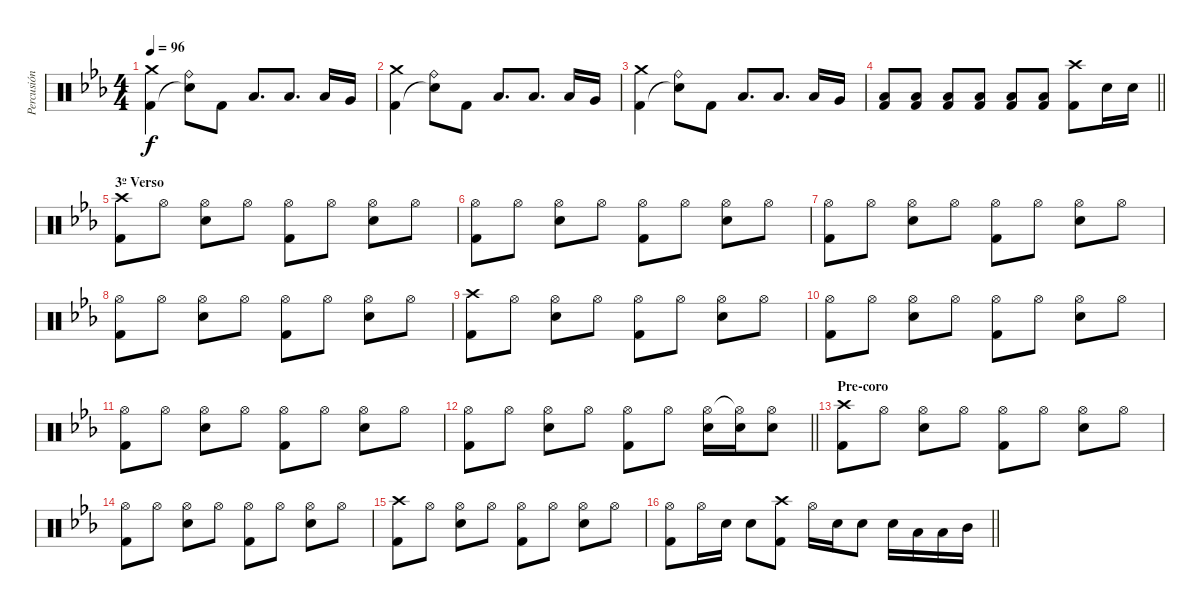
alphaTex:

\track ("Percusión" "Percusión") {instrument percussion}
\staff {score}
\articulation defaults
\ts (4 4)
\tempo 96
\clef neutral
\ks eb
("Crash medium (hit)" "Kick (hit) 2").4{dy f} ("Ride (bell)" "Snare (hit)"{t}).8 "Kick (hit) 2".8 "Low Tom (hit)".8{d} "Low Tom (hit)".8{d} "Low Tom (hit)".16 "Very Low Tom (hit)".16 |
("Crash medium (hit)" "Kick (hit) 2").4 ("Ride (bell)" "Snare (hit)"{t}).8 "Kick (hit) 2".8 "Low Tom (hit)".8{d} "Low Tom (hit)".8{d} "Low Tom (hit)".16 "Very Low Tom (hit)".16 |
("Crash medium (hit)" "Kick (hit) 2").4 ("Ride (bell)" "Snare (hit)"{t}).8 "Kick (hit) 2".8 "Low Tom (hit)".8{d} "Low Tom (hit)".8{d} "Low Tom (hit)".16 "Very Low Tom (hit)".16 |
\barLineRight lightlight
("Low Tom (hit)" "Kick (hit) 2").8 ("Low Tom (hit)" "Kick (hit) 2").8 ("Low Tom (hit)" "Kick (hit) 2").8 ("Low Tom (hit)" "Kick (hit) 2").8 ("Low Tom (hit)" "Kick (hit) 2").8 ("Low Tom (hit)" "Kick (hit) 2").8 ("Crash high (hit)" "Kick (hit) 2").8 "Electric Snare (hit)".16 "Electric Snare (hit)".16 |
\section ("" "3º Verso")
("Crash high (hit)" "Kick (hit) 2").8 "Hi-Hat (open)".8 ("Hi-Hat (open)" "Electric Snare (hit)").8 "Hi-Hat (open)".8 ("Hi-Hat (open)" "Kick (hit) 2").8 "Hi-Hat (open)".8 ("Hi-Hat (open)" "Electric Snare (hit)").8 "Hi-Hat (open)".8 |
("Hi-Hat (open)" "Kick (hit) 2").8 "Hi-Hat (open)".8 ("Hi-Hat (open)" "Electric Snare (hit)").8 "Hi-Hat (open)".8 ("Hi-Hat (open)" "Kick (hit) 2").8 "Hi-Hat (open)".8 ("Hi-Hat (open)" "Electric Snare (hit)").8 "Hi-Hat (open)".8 |
("Hi-Hat (open)" "Kick (hit) 2").8 "Hi-Hat (open)".8 ("Hi-Hat (open)" "Electric Snare (hit)").8 "Hi-Hat (open)".8 ("Hi-Hat (open)" "Kick (hit) 2").8 "Hi-Hat (open)".8 ("Hi-Hat (open)" "Electric Snare (hit)").8 "Hi-Hat (open)".8 |
("Hi-Hat (open)" "Kick (hit) 2").8 "Hi-Hat (open)".8 ("Hi-Hat (open)" "Electric Snare (hit)").8 "Hi-Hat (open)".8 ("Hi-Hat (open)" "Kick (hit) 2").8 "Hi-Hat (open)".8 ("Hi-Hat (open)" "Electric Snare (hit)").8 "Hi-Hat (open)".8 |
("Crash high (hit)" "Kick (hit) 2").8 "Hi-Hat (open)".8 ("Hi-Hat (open)" "Electric Snare (hit)").8 "Hi-Hat (open)".8 ("Hi-Hat (open)" "Kick (hit) 2").8 "Hi-Hat (open)".8 ("Hi-Hat (open)" "Electric Snare (hit)").8 "Hi-Hat (open)".8 |
("Hi-Hat (open)" "Kick (hit) 2").8 "Hi-Hat (open)".8 ("Hi-Hat (open)" "Electric Snare (hit)").8 "Hi-Hat (open)".8 ("Hi-Hat (open)" "Kick (hit) 2").8 "Hi-Hat (open)".8 ("Hi-Hat (open)" "Electric Snare (hit)").8 "Hi-Hat (open)".8 |
("Hi-Hat (open)" "Kick (hit) 2").8 "Hi-Hat (open)".8 ("Hi-Hat (open)" "Electric Snare (hit)").8 "Hi-Hat (open)".8 ("Hi-Hat (open)" "Kick (hit) 2").8 "Hi-Hat (open)".8 ("Hi-Hat (open)" "Electric Snare (hit)").8 "Hi-Hat (open)".8 |
\barLineRight lightlight
("Hi-Hat (open)" "Kick (hit) 2").8 "Hi-Hat (open)".8 ("Hi-Hat (open)" "Electric Snare (hit)").8 "Hi-Hat (open)".8 ("Hi-Hat (open)" "Kick (hit) 2").8 "Hi-Hat (open)".8 ("Hi-Hat (open)" "Electric Snare (hit)").16 ("Hi-Hat (open)"{t} "Electric Snare (hit)").16 ("Hi-Hat (open)" "Electric Snare (hit)").8 |
\section ("" "Pre-coro")
("Crash high (hit)" "Kick (hit) 2").8 "Hi-Hat (open)".8 ("Hi-Hat (open)" "Electric Snare (hit)").8 "Hi-Hat (open)".8 ("Hi-Hat (open)" "Kick (hit) 2").8 "Hi-Hat (open)".8 ("Hi-Hat (open)" "Electric Snare (hit)").8 "Hi-Hat (open)".8 |
("Hi-Hat (open)" "Kick (hit) 2").8 "Hi-Hat (open)".8 ("Hi-Hat (open)" "Electric Snare (hit)").8 "Hi-Hat (open)".8 ("Hi-Hat (open)" "Kick (hit) 2").8 "Hi-Hat (open)".8 ("Hi-Hat (open)" "Electric Snare (hit)").8 "Hi-Hat (open)".8 |
("Crash high (hit)" "Kick (hit) 2").8 "Hi-Hat (open)".8 ("Hi-Hat (open)" "Electric Snare (hit)").8 "Hi-Hat (open)".8 ("Hi-Hat (open)" "Kick (hit) 2").8 "Hi-Hat (open)".8 ("Hi-Hat (open)" "Electric Snare (hit)").8 "Hi-Hat (open)".8 |
\barLineRight lightlight
("Hi-Hat (open)" "Kick (hit) 2").8 "Hi-Hat (open)".16 "Electric Snare (hit)".16 "Electric Snare (hit)".8 ("Crash high (hit)" "Kick (hit) 2").8 "Hi-Hat (open)".16 "Electric Snare (hit)".16 "Electric Snare (hit)".8 "Electric Snare (hit)".16 "Low Tom (hit)".16 "Low Tom (hit)".16 "Mid Tom (hit)".16
